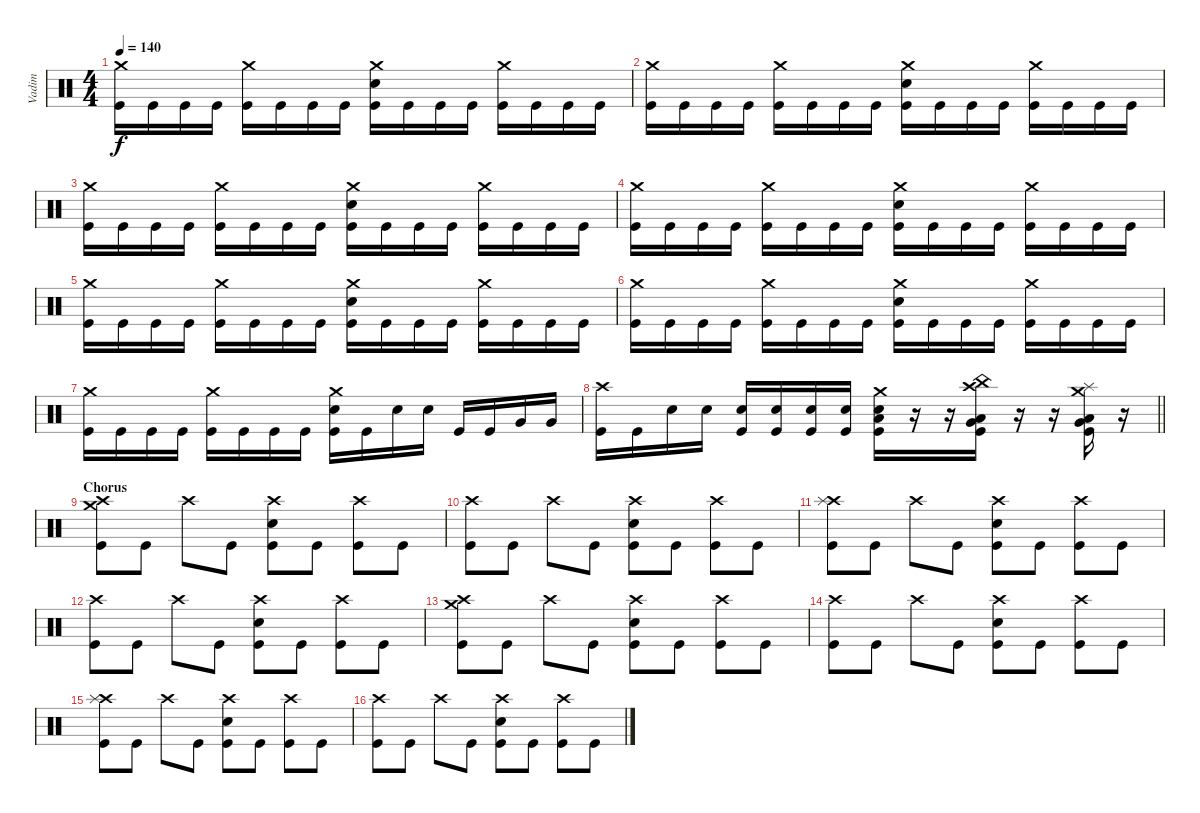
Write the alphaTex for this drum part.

\track ("Vadim" "Vadim") {instrument percussion}
\staff {score}
\articulation defaults
\ts (4 4)
\tempo 140
\clef neutral
\ks c
("Crash medium (hit)" "Kick (hit)").16{dy f} "Kick (hit)".16 "Kick (hit)".16 "Kick (hit)".16 ("Crash medium (hit)" "Kick (hit)").16 "Kick (hit)".16 "Kick (hit)".16 "Kick (hit)".16 ("Crash medium (hit)" "Electric Snare (hit)" "Kick (hit)").16 "Kick (hit)".16 "Kick (hit)".16 "Kick (hit)".16 ("Crash medium (hit)" "Kick (hit)").16 "Kick (hit)".16 "Kick (hit)".16 "Kick (hit)".16 |
("Crash medium (hit)" "Kick (hit)").16 "Kick (hit)".16 "Kick (hit)".16 "Kick (hit)".16 ("Crash medium (hit)" "Kick (hit)").16 "Kick (hit)".16 "Kick (hit)".16 "Kick (hit)".16 ("Crash medium (hit)" "Electric Snare (hit)" "Kick (hit)").16 "Kick (hit)".16 "Kick (hit)".16 "Kick (hit)".16 ("Crash medium (hit)" "Kick (hit)").16 "Kick (hit)".16 "Kick (hit)".16 "Kick (hit)".16 |
("Crash medium (hit)" "Kick (hit)").16 "Kick (hit)".16 "Kick (hit)".16 "Kick (hit)".16 ("Crash medium (hit)" "Kick (hit)").16 "Kick (hit)".16 "Kick (hit)".16 "Kick (hit)".16 ("Crash medium (hit)" "Electric Snare (hit)" "Kick (hit)").16 "Kick (hit)".16 "Kick (hit)".16 "Kick (hit)".16 ("Crash medium (hit)" "Kick (hit)").16 "Kick (hit)".16 "Kick (hit)".16 "Kick (hit)".16 |
("Crash medium (hit)" "Kick (hit)").16 "Kick (hit)".16 "Kick (hit)".16 "Kick (hit)".16 ("Crash medium (hit)" "Kick (hit)").16 "Kick (hit)".16 "Kick (hit)".16 "Kick (hit)".16 ("Crash medium (hit)" "Electric Snare (hit)" "Kick (hit)").16 "Kick (hit)".16 "Kick (hit)".16 "Kick (hit)".16 ("Crash medium (hit)" "Kick (hit)").16 "Kick (hit)".16 "Kick (hit)".16 "Kick (hit)".16 |
("Crash medium (hit)" "Kick (hit)").16 "Kick (hit)".16 "Kick (hit)".16 "Kick (hit)".16 ("Crash medium (hit)" "Kick (hit)").16 "Kick (hit)".16 "Kick (hit)".16 "Kick (hit)".16 ("Crash medium (hit)" "Electric Snare (hit)" "Kick (hit)").16 "Kick (hit)".16 "Kick (hit)".16 "Kick (hit)".16 ("Crash medium (hit)" "Kick (hit)").16 "Kick (hit)".16 "Kick (hit)".16 "Kick (hit)".16 |
("Crash medium (hit)" "Kick (hit)").16 "Kick (hit)".16 "Kick (hit)".16 "Kick (hit)".16 ("Crash medium (hit)" "Kick (hit)").16 "Kick (hit)".16 "Kick (hit)".16 "Kick (hit)".16 ("Crash medium (hit)" "Electric Snare (hit)" "Kick (hit)").16 "Kick (hit)".16 "Kick (hit)".16 "Kick (hit)".16 ("Crash medium (hit)" "Kick (hit)").16 "Kick (hit)".16 "Kick (hit)".16 "Kick (hit)".16 |
("Crash medium (hit)" "Kick (hit)").16 "Kick (hit)".16 "Kick (hit)".16 "Kick (hit)".16 ("Crash medium (hit)" "Kick (hit)").16 "Kick (hit)".16 "Kick (hit)".16 "Kick (hit)".16 ("Crash medium (hit)" "Electric Snare (hit)" "Kick (hit)").16 "Kick (hit)".16 "Electric Snare (hit)".16 "Electric Snare (hit)".16 "Kick (hit)".16 "Kick (hit)".16 "Very Low Tom (hit)".16 "Very Low Tom (hit)".16 |
\barLineRight lightlight
("Crash high (hit)" "Kick (hit)").16 "Kick (hit)".16 "Electric Snare (hit)".16 "Electric Snare (hit)".16 ("Electric Snare (hit)" "Kick (hit)").16 ("Electric Snare (hit)" "Kick (hit)").16 ("Electric Snare (hit)" "Kick (hit)").16 ("Electric Snare (hit)" "Kick (hit)").16 ("Crash medium (hit)" "Low Tom (hit)" "Electric Snare (hit)" "Kick (hit)").16 r.16 r.16 ("Crash high (hit)" "China (hit)" "Very Low Tom (hit)" "Low Floor Tom (hit)" "Kick (hit)").16 r.16 r.16 ("Splash (hit)" "Crash medium (hit)" "Very Low Tom (hit)" "Low Floor Tom (hit)" "Kick (hit)").16 r.16 |
\section ("" "Chorus")
("Crash high (hit)" "Crash medium (hit)" "Kick (hit)").8 "Kick (hit)".8 "Crash high (hit)".8 "Kick (hit)".8 ("Crash high (hit)" "Electric Snare (hit)" "Kick (hit)").8 "Kick (hit)".8 ("Crash high (hit)" "Kick (hit)").8 "Kick (hit)".8 |
("Crash high (hit)" "Kick (hit)").8 "Kick (hit)".8 "Crash high (hit)".8 "Kick (hit)".8 ("Crash high (hit)" "Electric Snare (hit)" "Kick (hit)").8 "Kick (hit)".8 ("Crash high (hit)" "Kick (hit)").8 "Kick (hit)".8 |
("Crash high (hit)" "Splash (hit)" "Kick (hit)").8 "Kick (hit)".8 "Crash high (hit)".8 "Kick (hit)".8 ("Crash high (hit)" "Electric Snare (hit)" "Kick (hit)").8 "Kick (hit)".8 ("Crash high (hit)" "Kick (hit)").8 "Kick (hit)".8 |
("Crash high (hit)" "Kick (hit)").8 "Kick (hit)".8 "Crash high (hit)".8 "Kick (hit)".8 ("Crash high (hit)" "Electric Snare (hit)" "Kick (hit)").8 "Kick (hit)".8 ("Crash high (hit)" "Kick (hit)").8 "Kick (hit)".8 |
("Crash high (hit)" "Crash medium (hit)" "Kick (hit)").8 "Kick (hit)".8 "Crash high (hit)".8 "Kick (hit)".8 ("Crash high (hit)" "Electric Snare (hit)" "Kick (hit)").8 "Kick (hit)".8 ("Crash high (hit)" "Kick (hit)").8 "Kick (hit)".8 |
("Crash high (hit)" "Kick (hit)").8 "Kick (hit)".8 "Crash high (hit)".8 "Kick (hit)".8 ("Crash high (hit)" "Electric Snare (hit)" "Kick (hit)").8 "Kick (hit)".8 ("Crash high (hit)" "Kick (hit)").8 "Kick (hit)".8 |
("Crash high (hit)" "Splash (hit)" "Kick (hit)").8 "Kick (hit)".8 "Crash high (hit)".8 "Kick (hit)".8 ("Crash high (hit)" "Electric Snare (hit)" "Kick (hit)").8 "Kick (hit)".8 ("Crash high (hit)" "Kick (hit)").8 "Kick (hit)".8 |
("Crash high (hit)" "Kick (hit)").8 "Kick (hit)".8 "Crash high (hit)".8 "Kick (hit)".8 ("Crash high (hit)" "Electric Snare (hit)" "Kick (hit)").8 "Kick (hit)".8 ("Crash high (hit)" "Kick (hit)").8 "Kick (hit)".8
